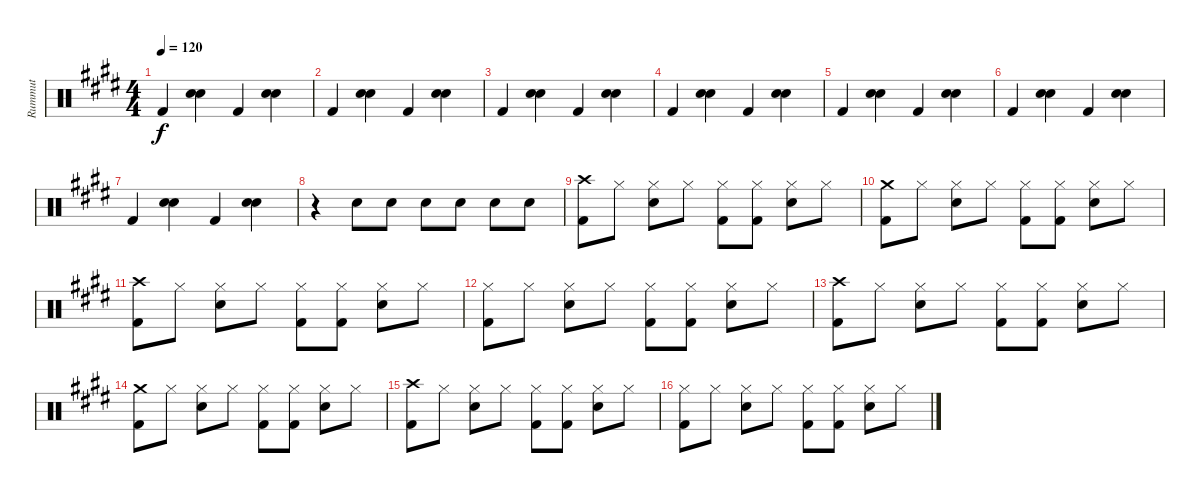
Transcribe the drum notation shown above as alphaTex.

\track ("Rummut" "Rummut") {instrument percussion}
\staff {score}
\articulation defaults
\ts (4 4)
\tempo 120
\clef neutral
\ks e "Kick (hit) 2".4{dy f}
("Electric Snare (hit)" "Hand Clap (hit)").4{bd 120} "Kick (hit) 2".4 ("Electric Snare (hit)" "Hand Clap (hit)").4{bd 120} |
"Kick (hit) 2".4 ("Electric Snare (hit)" "Hand Clap (hit)").4{bd 120} "Kick (hit) 2".4 ("Electric Snare (hit)" "Hand Clap (hit)").4{bd 120} |
"Kick (hit) 2".4 ("Electric Snare (hit)" "Hand Clap (hit)").4{bd 120} "Kick (hit) 2".4 ("Electric Snare (hit)" "Hand Clap (hit)").4{bd 120} |
"Kick (hit) 2".4 ("Electric Snare (hit)" "Hand Clap (hit)").4{bd 120} "Kick (hit) 2".4 ("Electric Snare (hit)" "Hand Clap (hit)").4{bd 120} |
"Kick (hit) 2".4 ("Electric Snare (hit)" "Hand Clap (hit)").4{bd 120} "Kick (hit) 2".4 ("Electric Snare (hit)" "Hand Clap (hit)").4{bd 120} |
"Kick (hit) 2".4 ("Electric Snare (hit)" "Hand Clap (hit)").4{bd 120} "Kick (hit) 2".4 ("Electric Snare (hit)" "Hand Clap (hit)").4{bd 120} |
"Kick (hit) 2".4 ("Electric Snare (hit)" "Hand Clap (hit)").4{bd 120} "Kick (hit) 2".4 ("Electric Snare (hit)" "Hand Clap (hit)").4{bd 120} |
r.4{volume 0} "Electric Snare (hit)".8{volume 16} "Electric Snare (hit)".8 "Electric Snare (hit)".8 "Electric Snare (hit)".8 "Electric Snare (hit)".8 "Electric Snare (hit)".8 |
("Crash high (hit)" "Kick (hit) 2").8 "Hi-Hat (closed)".8 ("Hi-Hat (closed)" "Electric Snare (hit)").8 "Hi-Hat (closed)".8 ("Hi-Hat (closed)" "Kick (hit) 2").8 ("Hi-Hat (closed)" "Kick (hit) 2").8 ("Hi-Hat (closed)" "Electric Snare (hit)").8 "Hi-Hat (closed)".8 |
("Crash medium (hit)" "Kick (hit) 2").8 "Hi-Hat (closed)".8 ("Hi-Hat (closed)" "Electric Snare (hit)").8 "Hi-Hat (closed)".8 ("Hi-Hat (closed)" "Kick (hit) 2").8 ("Hi-Hat (closed)" "Kick (hit) 2").8 ("Hi-Hat (closed)" "Electric Snare (hit)").8 "Hi-Hat (closed)".8 |
("Crash high (hit)" "Kick (hit) 2").8 "Hi-Hat (closed)".8 ("Hi-Hat (closed)" "Electric Snare (hit)").8 "Hi-Hat (closed)".8 ("Hi-Hat (closed)" "Kick (hit) 2").8 ("Hi-Hat (closed)" "Kick (hit) 2").8 ("Hi-Hat (closed)" "Electric Snare (hit)").8 "Hi-Hat (closed)".8 |
("Hi-Hat (closed)" "Kick (hit) 2").8 "Hi-Hat (closed)".8 ("Hi-Hat (closed)" "Electric Snare (hit)").8 "Hi-Hat (closed)".8 ("Hi-Hat (closed)" "Kick (hit) 2").8 ("Hi-Hat (closed)" "Kick (hit) 2").8 ("Hi-Hat (closed)" "Electric Snare (hit)").8 "Hi-Hat (closed)".8 |
("Crash high (hit)" "Kick (hit) 2").8 "Hi-Hat (closed)".8 ("Hi-Hat (closed)" "Electric Snare (hit)").8 "Hi-Hat (closed)".8 ("Hi-Hat (closed)" "Kick (hit) 2").8 ("Hi-Hat (closed)" "Kick (hit) 2").8 ("Hi-Hat (closed)" "Electric Snare (hit)").8 "Hi-Hat (closed)".8 |
("Crash medium (hit)" "Kick (hit) 2").8 "Hi-Hat (closed)".8 ("Hi-Hat (closed)" "Electric Snare (hit)").8 "Hi-Hat (closed)".8 ("Hi-Hat (closed)" "Kick (hit) 2").8 ("Hi-Hat (closed)" "Kick (hit) 2").8 ("Hi-Hat (closed)" "Electric Snare (hit)").8 "Hi-Hat (closed)".8 |
("Crash high (hit)" "Kick (hit) 2").8 "Hi-Hat (closed)".8 ("Hi-Hat (closed)" "Electric Snare (hit)").8 "Hi-Hat (closed)".8 ("Hi-Hat (closed)" "Kick (hit) 2").8 ("Hi-Hat (closed)" "Kick (hit) 2").8 ("Hi-Hat (closed)" "Electric Snare (hit)").8 "Hi-Hat (closed)".8 |
("Hi-Hat (closed)" "Kick (hit) 2").8 "Hi-Hat (closed)".8 ("Hi-Hat (closed)" "Electric Snare (hit)").8 "Hi-Hat (closed)".8 ("Hi-Hat (closed)" "Kick (hit) 2").8 ("Hi-Hat (closed)" "Kick (hit) 2").8 ("Hi-Hat (closed)" "Electric Snare (hit)").8 "Hi-Hat (closed)".8
